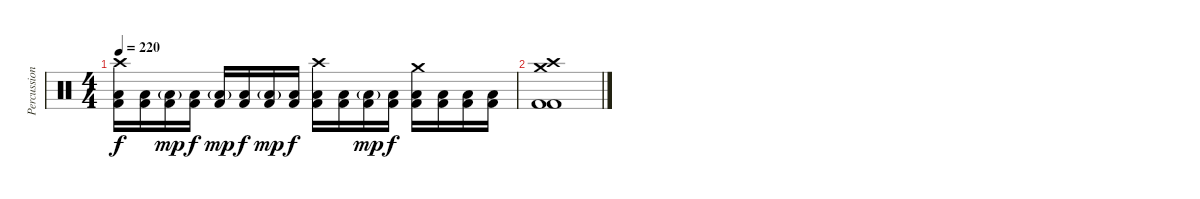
\track ("Percussioni" "Percussion") {instrument percussion}
\staff {score}
\articulation defaults
\ts (4 4)
\tempo 220
\clef neutral
\ks c
("Crash high (hit)" "Low Tom (hit)" "Kick (hit) 2").16{dy f} ("Low Tom (hit)" "Kick (hit) 2").16 ("Low Tom (hit)"{g} "Kick (hit) 2").16{dy mp} ("Low Tom (hit)" "Kick (hit) 2").16{dy f} ("Low Tom (hit)"{g} "Kick (hit) 2").16{dy mp} ("Low Tom (hit)" "Kick (hit) 2").16{dy f} ("Low Tom (hit)"{g} "Kick (hit) 2").16{dy mp} ("Low Tom (hit)" "Kick (hit) 2").16{dy f} ("Crash high (hit)" "Low Tom (hit)" "Kick (hit) 2").16 ("Low Tom (hit)" "Kick (hit) 2").16 ("Low Tom (hit)"{g} "Kick (hit) 2").16{dy mp} ("Low Tom (hit)" "Kick (hit) 2").16{dy f} ("Crash medium (hit)" "Low Tom (hit)" "Kick (hit) 2").16 ("Low Tom (hit)" "Kick (hit) 2").16 ("Low Tom (hit)" "Kick (hit) 2").16 ("Low Tom (hit)" "Kick (hit) 2").16 |
("Crash high (hit)" "Crash medium (hit)" "Kick (hit) 2" "Kick (hit) 2").1
